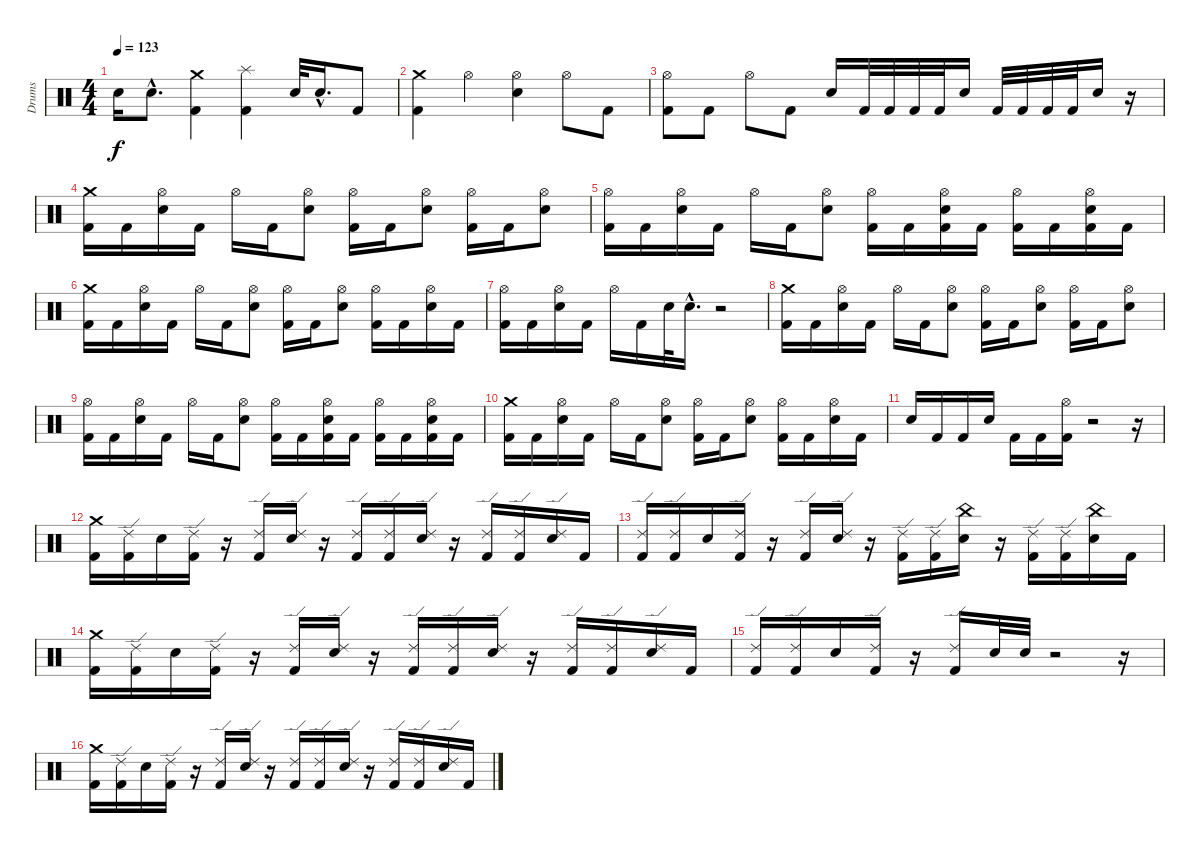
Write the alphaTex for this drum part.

\track ("Drums" "Drums") {instrument percussion}
\staff {score}
\articulation defaults
\ts (4 4)
\tempo 123
\clef neutral
\ks c "Electric Snare (hit)".16{dy f} "Electric Snare (hit)"{hac}.8{d}
("Crash medium (hit)" "Kick (hit) 2").4 ("Splash (hit)" "Kick (hit) 2").4 "Electric Snare (hit)".32 "Electric Snare (hit)"{hac}.16{d} "Kick (hit) 2".8 |
("Kick (hit) 2" "Crash medium (hit)").4 "Hi-Hat (open)".4 ("Electric Snare (hit)" "Hi-Hat (open)").4 "Hi-Hat (open)".8 "Kick (hit) 2".8 |
("Kick (hit) 2" "Hi-Hat (open)").8 "Kick (hit) 2".8 "Hi-Hat (open)".8 "Kick (hit) 2".8 "Electric Snare (hit)".16 "Kick (hit) 2".32 "Kick (hit) 2".32 "Kick (hit) 2".32 "Kick (hit) 2".32 "Electric Snare (hit)".16 "Kick (hit) 2".32 "Kick (hit) 2".32 "Kick (hit) 2".32 "Kick (hit) 2".32 "Electric Snare (hit)".16 r.16 |
("Kick (hit) 2" "Crash medium (hit)").16 "Kick (hit) 2".16 ("Electric Snare (hit)" "Hi-Hat (open)").16 "Kick (hit) 2".16 "Hi-Hat (open)".16 "Kick (hit) 2".16 ("Electric Snare (hit)" "Hi-Hat (open)").8 ("Kick (hit) 2" "Hi-Hat (open)").16 "Kick (hit) 2".16 ("Electric Snare (hit)" "Hi-Hat (open)").8 ("Kick (hit) 2" "Hi-Hat (open)").16 "Kick (hit) 2".16 ("Electric Snare (hit)" "Hi-Hat (open)").8 |
("Hi-Hat (open)" "Kick (hit) 2").16 "Kick (hit) 2".16 ("Hi-Hat (open)" "Electric Snare (hit)").16 "Kick (hit) 2".16 "Hi-Hat (open)".16 "Kick (hit) 2".16 ("Hi-Hat (open)" "Electric Snare (hit)").8 ("Hi-Hat (open)" "Kick (hit) 2").16 "Kick (hit) 2".16 ("Hi-Hat (open)" "Electric Snare (hit)" "Kick (hit) 2").16 "Kick (hit) 2".16 ("Hi-Hat (open)" "Kick (hit) 2").16 "Kick (hit) 2".16 ("Hi-Hat (open)" "Electric Snare (hit)" "Kick (hit) 2").16 "Kick (hit) 2".16 |
("Kick (hit) 2" "Crash medium (hit)").16 "Kick (hit) 2".16 ("Electric Snare (hit)" "Hi-Hat (open)").16 "Kick (hit) 2".16 "Hi-Hat (open)".16 "Kick (hit) 2".16 ("Electric Snare (hit)" "Hi-Hat (open)").8 ("Kick (hit) 2" "Hi-Hat (open)").16 "Kick (hit) 2".16 ("Electric Snare (hit)" "Hi-Hat (open)").8 ("Kick (hit) 2" "Hi-Hat (open)").16 "Kick (hit) 2".16 ("Electric Snare (hit)" "Hi-Hat (open)").16 "Kick (hit) 2".16 |
("Hi-Hat (open)" "Kick (hit) 2").16 "Kick (hit) 2".16 ("Hi-Hat (open)" "Electric Snare (hit)").16 "Kick (hit) 2".16 "Hi-Hat (open)".16 "Kick (hit) 2".16 "Electric Snare (hit)".32 "Electric Snare (hit)"{hac}.16{d} r.2 |
("Kick (hit) 2" "Crash medium (hit)").16 "Kick (hit) 2".16 ("Electric Snare (hit)" "Hi-Hat (open)").16 "Kick (hit) 2".16 "Hi-Hat (open)".16 "Kick (hit) 2".16 ("Electric Snare (hit)" "Hi-Hat (open)").8 ("Kick (hit) 2" "Hi-Hat (open)").16 "Kick (hit) 2".16 ("Electric Snare (hit)" "Hi-Hat (open)").8 ("Kick (hit) 2" "Hi-Hat (open)").16 "Kick (hit) 2".16 ("Electric Snare (hit)" "Hi-Hat (open)").8 |
("Hi-Hat (open)" "Kick (hit) 2").16 "Kick (hit) 2".16 ("Hi-Hat (open)" "Electric Snare (hit)").16 "Kick (hit) 2".16 "Hi-Hat (open)".16 "Kick (hit) 2".16 ("Hi-Hat (open)" "Electric Snare (hit)").8 ("Hi-Hat (open)" "Kick (hit) 2").16 "Kick (hit) 2".16 ("Hi-Hat (open)" "Electric Snare (hit)" "Kick (hit) 2").16 "Kick (hit) 2".16 ("Hi-Hat (open)" "Kick (hit) 2").16 "Kick (hit) 2".16 ("Hi-Hat (open)" "Electric Snare (hit)" "Kick (hit) 2").16 "Kick (hit) 2".16 |
("Kick (hit) 2" "Crash medium (hit)").16 "Kick (hit) 2".16 ("Electric Snare (hit)" "Hi-Hat (open)").16 "Kick (hit) 2".16 "Hi-Hat (open)".16 "Kick (hit) 2".16 ("Electric Snare (hit)" "Hi-Hat (open)").8 ("Kick (hit) 2" "Hi-Hat (open)").16 "Kick (hit) 2".16 ("Electric Snare (hit)" "Hi-Hat (open)").8 ("Kick (hit) 2" "Hi-Hat (open)").16 "Kick (hit) 2".16 ("Electric Snare (hit)" "Hi-Hat (open)").16 "Kick (hit) 2".16 |
"Electric Snare (hit)".16 "Kick (hit) 2".16 "Kick (hit) 2".16 "Electric Snare (hit)".16 "Kick (hit) 2".16 "Kick (hit) 2".16 ("Hi-Hat (open)" "Kick (hit) 2").16 r.2 r.16 |
("Crash medium (hit)" "Kick (hit) 2").16 ("Kick (hit) 2" "Ride (edge) 2").16 "Electric Snare (hit)".16 ("Kick (hit) 2" "Ride (edge) 2").16 r.16 ("Kick (hit) 2" "Ride (edge) 2").16 ("Electric Snare (hit)" "Ride (edge) 2").16 r.16 ("Kick (hit) 2" "Ride (edge) 2").16 ("Kick (hit) 2" "Ride (edge) 2").16 ("Electric Snare (hit)" "Ride (edge) 2").16 r.16 ("Kick (hit) 2" "Ride (edge) 2").16 ("Kick (hit) 2" "Ride (edge) 2").16 ("Electric Snare (hit)" "Ride (edge) 2").16 "Kick (hit) 2".16 |
("Kick (hit) 2" "Ride (edge) 2").16 ("Kick (hit) 2" "Ride (edge) 2").16 "Electric Snare (hit)".16 ("Kick (hit) 2" "Ride (edge) 2").16 r.16 ("Kick (hit) 2" "Ride (edge) 2").16 ("Electric Snare (hit)" "Ride (edge) 2").16 r.16 ("Ride (edge) 2" "Kick (hit) 2").16 ("Ride (edge) 2" "Kick (hit) 2").16 ("China (hit)" "Electric Snare (hit)").16 r.16 ("Ride (edge) 2" "Kick (hit) 2").16 ("Ride (edge) 2" "Kick (hit) 2").16 ("China (hit)" "Electric Snare (hit)").16 "Kick (hit) 2".16 |
("Crash medium (hit)" "Kick (hit) 2").16 ("Kick (hit) 2" "Ride (edge) 2").16 "Electric Snare (hit)".16 ("Kick (hit) 2" "Ride (edge) 2").16 r.16 ("Kick (hit) 2" "Ride (edge) 2").16 ("Electric Snare (hit)" "Ride (edge) 2").16 r.16 ("Kick (hit) 2" "Ride (edge) 2").16 ("Kick (hit) 2" "Ride (edge) 2").16 ("Electric Snare (hit)" "Ride (edge) 2").16 r.16 ("Kick (hit) 2" "Ride (edge) 2").16 ("Kick (hit) 2" "Ride (edge) 2").16 ("Electric Snare (hit)" "Ride (edge) 2").16 "Kick (hit) 2".16 |
("Kick (hit) 2" "Ride (edge) 2").16 ("Kick (hit) 2" "Ride (edge) 2").16 "Electric Snare (hit)".16 ("Kick (hit) 2" "Ride (edge) 2").16 r.16 ("Kick (hit) 2" "Ride (edge) 2").16 "Electric Snare (hit)".32 "Electric Snare (hit)".32 r.2 r.16 |
("Crash medium (hit)" "Kick (hit) 2").16 ("Kick (hit) 2" "Ride (edge) 2").16 "Electric Snare (hit)".16 ("Kick (hit) 2" "Ride (edge) 2").16 r.16 ("Kick (hit) 2" "Ride (edge) 2").16 ("Electric Snare (hit)" "Ride (edge) 2").16 r.16 ("Kick (hit) 2" "Ride (edge) 2").16 ("Kick (hit) 2" "Ride (edge) 2").16 ("Electric Snare (hit)" "Ride (edge) 2").16 r.16 ("Kick (hit) 2" "Ride (edge) 2").16 ("Kick (hit) 2" "Ride (edge) 2").16 ("Electric Snare (hit)" "Ride (edge) 2").16 "Kick (hit) 2".16
